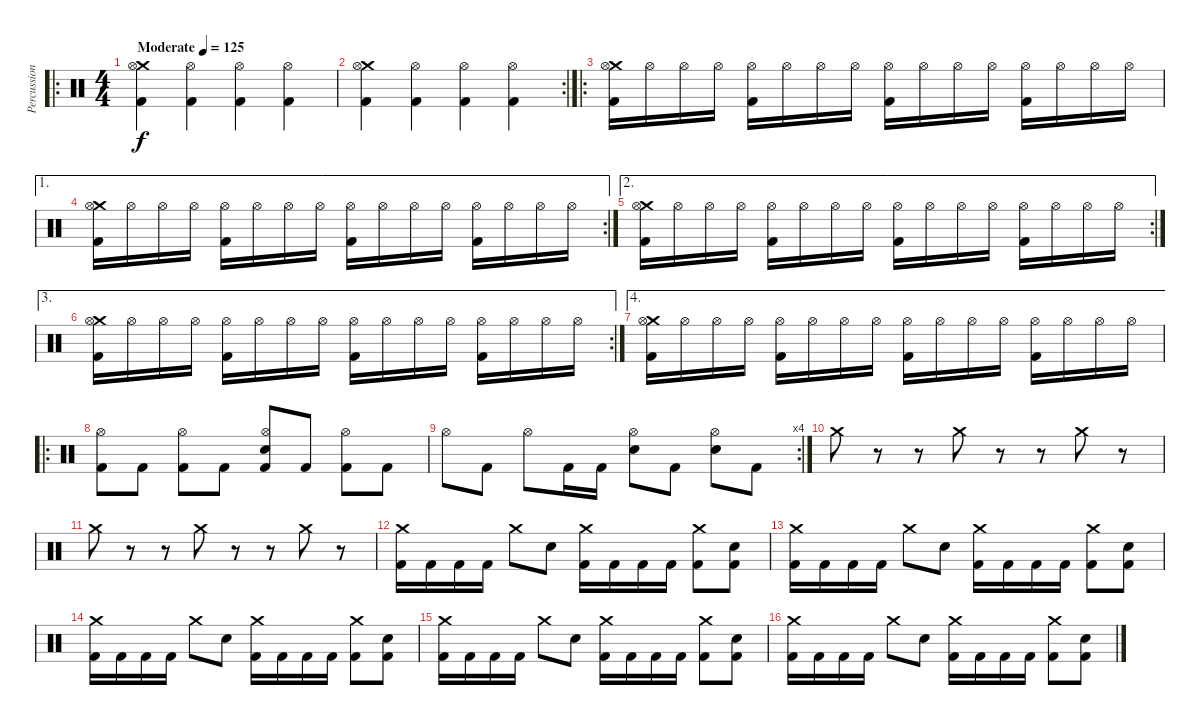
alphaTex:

\track ("Percussion" "Percussion") {instrument percussion}
\staff {score}
\articulation defaults
\ro
\ts (4 4)
\tempo (125 "Moderate")
\clef neutral
\ks c
("Crash medium (hit)" "Kick (hit) 2" "Hi-Hat (open)").4{dy f} ("Kick (hit) 2" "Hi-Hat (open)").4 ("Kick (hit) 2" "Hi-Hat (open)").4 ("Kick (hit) 2" "Hi-Hat (open)").4 |
\rc 2
("Crash medium (hit)" "Kick (hit) 2" "Hi-Hat (open)").4 ("Kick (hit) 2" "Hi-Hat (open)").4 ("Kick (hit) 2" "Hi-Hat (open)").4 ("Kick (hit) 2" "Hi-Hat (open)").4 |
\ro
("Crash medium (hit)" "Kick (hit) 2" "Hi-Hat (open)").16 "Hi-Hat (open)".16 "Hi-Hat (open)".16 "Hi-Hat (open)".16 ("Kick (hit) 2" "Hi-Hat (open)").16 "Hi-Hat (open)".16 "Hi-Hat (open)".16 "Hi-Hat (open)".16 ("Kick (hit) 2" "Hi-Hat (open)").16 "Hi-Hat (open)".16 "Hi-Hat (open)".16 "Hi-Hat (open)".16 ("Kick (hit) 2" "Hi-Hat (open)").16 "Hi-Hat (open)".16 "Hi-Hat (open)".16 "Hi-Hat (open)".16 |
\ae 1
\rc 2
("Crash medium (hit)" "Kick (hit) 2" "Hi-Hat (open)").16 "Hi-Hat (open)".16 "Hi-Hat (open)".16 "Hi-Hat (open)".16 ("Kick (hit) 2" "Hi-Hat (open)").16 "Hi-Hat (open)".16 "Hi-Hat (open)".16 "Hi-Hat (open)".16 ("Kick (hit) 2" "Hi-Hat (open)").16 "Hi-Hat (open)".16 "Hi-Hat (open)".16 "Hi-Hat (open)".16 ("Kick (hit) 2" "Hi-Hat (open)").16 "Hi-Hat (open)".16 "Hi-Hat (open)".16 "Hi-Hat (open)".16 |
\ae 2
\rc 2
("Crash medium (hit)" "Kick (hit) 2" "Hi-Hat (open)").16 "Hi-Hat (open)".16 "Hi-Hat (open)".16 "Hi-Hat (open)".16 ("Kick (hit) 2" "Hi-Hat (open)").16 "Hi-Hat (open)".16 "Hi-Hat (open)".16 "Hi-Hat (open)".16 ("Kick (hit) 2" "Hi-Hat (open)").16 "Hi-Hat (open)".16 "Hi-Hat (open)".16 "Hi-Hat (open)".16 ("Kick (hit) 2" "Hi-Hat (open)").16 "Hi-Hat (open)".16 "Hi-Hat (open)".16 "Hi-Hat (open)".16 |
\ae 3
\rc 2
("Crash medium (hit)" "Kick (hit) 2" "Hi-Hat (open)").16 "Hi-Hat (open)".16 "Hi-Hat (open)".16 "Hi-Hat (open)".16 ("Kick (hit) 2" "Hi-Hat (open)").16 "Hi-Hat (open)".16 "Hi-Hat (open)".16 "Hi-Hat (open)".16 ("Kick (hit) 2" "Hi-Hat (open)").16 "Hi-Hat (open)".16 "Hi-Hat (open)".16 "Hi-Hat (open)".16 ("Kick (hit) 2" "Hi-Hat (open)").16 "Hi-Hat (open)".16 "Hi-Hat (open)".16 "Hi-Hat (open)".16 |
\ae 4
("Crash medium (hit)" "Kick (hit) 2" "Hi-Hat (open)").16 "Hi-Hat (open)".16 "Hi-Hat (open)".16 "Hi-Hat (open)".16 ("Kick (hit) 2" "Hi-Hat (open)").16 "Hi-Hat (open)".16 "Hi-Hat (open)".16 "Hi-Hat (open)".16 ("Kick (hit) 2" "Hi-Hat (open)").16 "Hi-Hat (open)".16 "Hi-Hat (open)".16 "Hi-Hat (open)".16 ("Kick (hit) 2" "Hi-Hat (open)").16 "Hi-Hat (open)".16 "Hi-Hat (open)".16 "Hi-Hat (open)".16 |
\ro
("Hi-Hat (open)" "Kick (hit) 2").8 "Kick (hit) 2".8 ("Hi-Hat (open)" "Kick (hit) 2").8 "Kick (hit) 2".8 ("Hi-Hat (open)" "Kick (hit) 2" "Snare (hit) 2").8 "Kick (hit) 2".8 ("Hi-Hat (open)" "Kick (hit) 2").8 "Kick (hit) 2".8 |
\rc 4 "Hi-Hat (open)".8 "Kick (hit) 2".8 "Hi-Hat (open)".8 "Kick (hit) 2".16 "Kick (hit) 2".16
("Hi-Hat (open)" "Snare (hit) 2").8 "Kick (hit) 2".8 ("Hi-Hat (open)" "Snare (hit) 2").8 "Kick (hit) 2".8 |
"Crash medium (hit)".8 r.8 r.8 "Crash medium (hit)".8 r.8 r.8 "Crash medium (hit)".8 r.8 |
"Crash medium (hit)".8 r.8 r.8 "Crash medium (hit)".8 r.8 r.8 "Crash medium (hit)".8 r.8 |
("Crash medium (hit)" "Kick (hit) 2").16 "Kick (hit) 2".16 "Kick (hit) 2".16 "Kick (hit) 2".16 "Crash medium (hit)".8 "Snare (hit) 2".8 ("Crash medium (hit)" "Kick (hit) 2").16 "Kick (hit) 2".16 "Kick (hit) 2".16 "Kick (hit) 2".16 ("Crash medium (hit)" "Kick (hit) 2").8 ("Kick (hit) 2" "Snare (hit) 2").8 |
("Crash medium (hit)" "Kick (hit) 2").16 "Kick (hit) 2".16 "Kick (hit) 2".16 "Kick (hit) 2".16 "Crash medium (hit)".8 "Snare (hit) 2".8 ("Crash medium (hit)" "Kick (hit) 2").16 "Kick (hit) 2".16 "Kick (hit) 2".16 "Kick (hit) 2".16 ("Crash medium (hit)" "Kick (hit) 2").8 ("Kick (hit) 2" "Snare (hit) 2").8 |
("Crash medium (hit)" "Kick (hit) 2").16 "Kick (hit) 2".16 "Kick (hit) 2".16 "Kick (hit) 2".16 "Crash medium (hit)".8 "Snare (hit) 2".8 ("Crash medium (hit)" "Kick (hit) 2").16 "Kick (hit) 2".16 "Kick (hit) 2".16 "Kick (hit) 2".16 ("Crash medium (hit)" "Kick (hit) 2").8 ("Kick (hit) 2" "Snare (hit) 2").8 |
("Crash medium (hit)" "Kick (hit) 2").16 "Kick (hit) 2".16 "Kick (hit) 2".16 "Kick (hit) 2".16 "Crash medium (hit)".8 "Snare (hit) 2".8 ("Crash medium (hit)" "Kick (hit) 2").16 "Kick (hit) 2".16 "Kick (hit) 2".16 "Kick (hit) 2".16 ("Crash medium (hit)" "Kick (hit) 2").8 ("Kick (hit) 2" "Snare (hit) 2").8 |
("Crash medium (hit)" "Kick (hit) 2").16 "Kick (hit) 2".16 "Kick (hit) 2".16 "Kick (hit) 2".16 "Crash medium (hit)".8 "Snare (hit) 2".8 ("Crash medium (hit)" "Kick (hit) 2").16 "Kick (hit) 2".16 "Kick (hit) 2".16 "Kick (hit) 2".16 ("Crash medium (hit)" "Kick (hit) 2").8 ("Kick (hit) 2" "Snare (hit) 2").8
